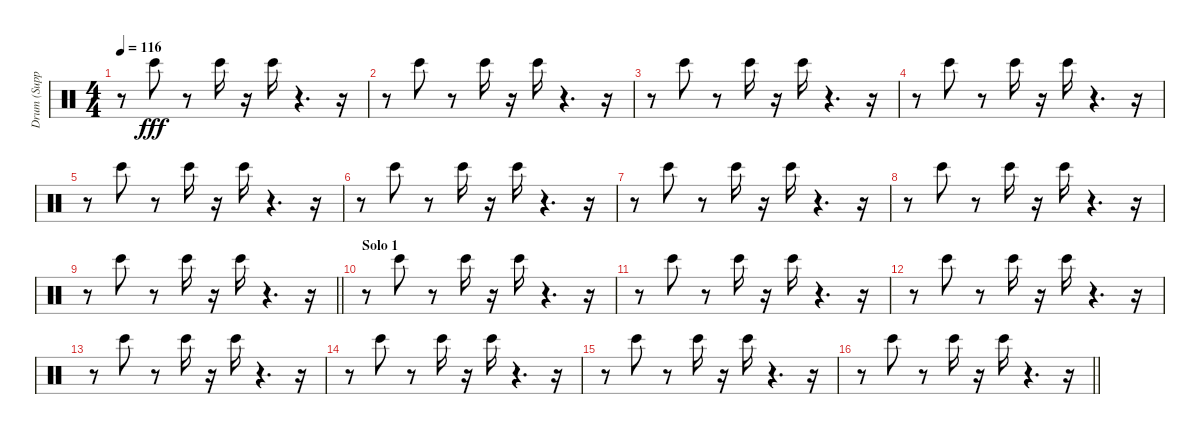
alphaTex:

\track ("Drum (Support)" "Drum (Supp") {instrument percussion}
\staff {score}
\articulation defaults
\ts (4 4)
\tempo 116
\clef neutral
\ks c
r.8{dy fff} "Bongo High (hit)".8 r.8 "Bongo High (hit)".16 r.16 "Bongo High (hit)".16 r.4{d} r.16 |
r.8 "Bongo High (hit)".8 r.8 "Bongo High (hit)".16 r.16 "Bongo High (hit)".16 r.4{d} r.16 |
r.8 "Bongo High (hit)".8 r.8 "Bongo High (hit)".16 r.16 "Bongo High (hit)".16 r.4{d} r.16 |
r.8 "Bongo High (hit)".8 r.8 "Bongo High (hit)".16 r.16 "Bongo High (hit)".16 r.4{d} r.16 |
r.8 "Bongo High (hit)".8 r.8 "Bongo High (hit)".16 r.16 "Bongo High (hit)".16 r.4{d} r.16 |
r.8 "Bongo High (hit)".8 r.8 "Bongo High (hit)".16 r.16 "Bongo High (hit)".16 r.4{d} r.16 |
r.8 "Bongo High (hit)".8 r.8 "Bongo High (hit)".16 r.16 "Bongo High (hit)".16 r.4{d} r.16 |
r.8 "Bongo High (hit)".8 r.8 "Bongo High (hit)".16 r.16 "Bongo High (hit)".16 r.4{d} r.16 |
\barLineRight lightlight
r.8 "Bongo High (hit)".8 r.8 "Bongo High (hit)".16 r.16 "Bongo High (hit)".16 r.4{d} r.16 |
\section ("" "Solo 1")
r.8 "Bongo High (hit)".8 r.8 "Bongo High (hit)".16 r.16 "Bongo High (hit)".16 r.4{d} r.16 |
r.8 "Bongo High (hit)".8 r.8 "Bongo High (hit)".16 r.16 "Bongo High (hit)".16 r.4{d} r.16 |
r.8 "Bongo High (hit)".8 r.8 "Bongo High (hit)".16 r.16 "Bongo High (hit)".16 r.4{d} r.16 |
r.8 "Bongo High (hit)".8 r.8 "Bongo High (hit)".16 r.16 "Bongo High (hit)".16 r.4{d} r.16 |
r.8 "Bongo High (hit)".8 r.8 "Bongo High (hit)".16 r.16 "Bongo High (hit)".16 r.4{d} r.16 |
r.8 "Bongo High (hit)".8 r.8 "Bongo High (hit)".16 r.16 "Bongo High (hit)".16 r.4{d} r.16 |
\barLineRight lightlight
r.8 "Bongo High (hit)".8 r.8 "Bongo High (hit)".16 r.16 "Bongo High (hit)".16 r.4{d} r.16
